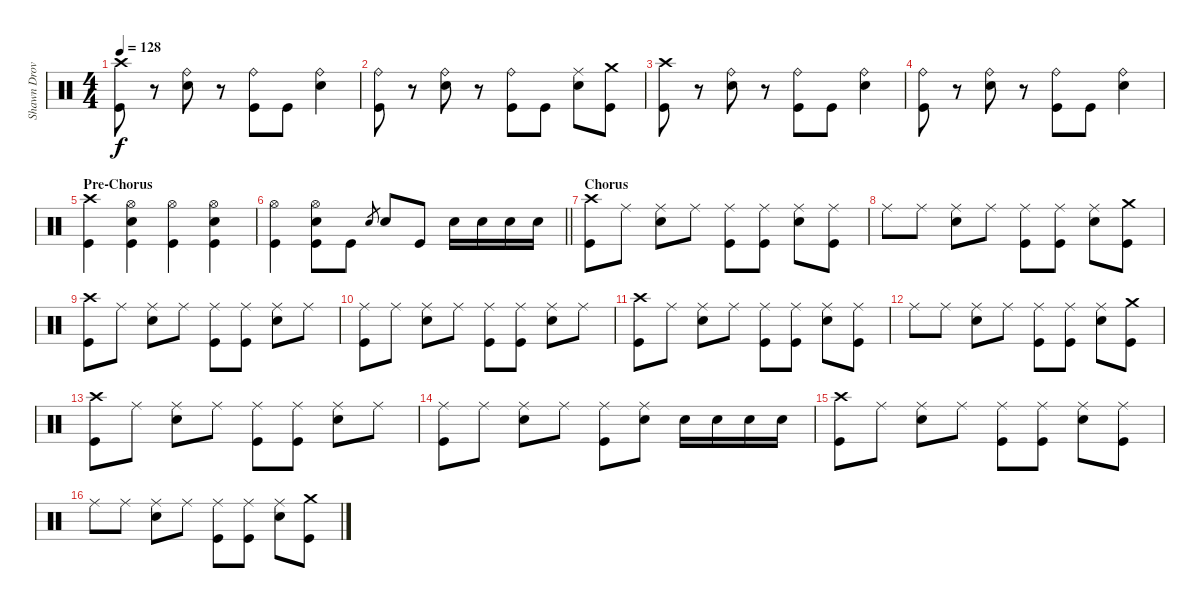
\track ("Shawn Drover" "Shawn Drov") {instrument percussion}
\staff {score}
\articulation defaults
\ts (4 4)
\tempo 128
\clef neutral
\ks c
("Crash high (hit)" "Kick (hit)").8{dy f} r.8 ("Ride (bell)" "Snare (hit) 2").8 r.8 ("Ride (bell)" "Kick (hit)").8 "Kick (hit)".8 ("Ride (bell)" "Snare (hit) 2").4 |
("Ride (bell)" "Kick (hit)").8 r.8 ("Ride (bell)" "Snare (hit) 2").8 r.8 ("Ride (bell)" "Kick (hit)").8 "Kick (hit)".8 ("Ride (middle)" "Snare (hit) 2").8 ("Crash medium (hit)" "Kick (hit)").8 |
("Crash high (hit)" "Kick (hit)").8 r.8 ("Ride (bell)" "Snare (hit) 2").8 r.8 ("Ride (bell)" "Kick (hit)").8 "Kick (hit)".8 ("Ride (bell)" "Snare (hit) 2").4 |
("Ride (bell)" "Kick (hit)").8 r.8 ("Ride (bell)" "Snare (hit) 2").8 r.8 ("Ride (bell)" "Kick (hit)").8 "Kick (hit)".8 ("Ride (bell)" "Snare (hit) 2").4 |
\section ("" "Pre-Chorus")
("Crash high (hit)" "Kick (hit)").4 ("Hi-Hat (open)" "Snare (hit) 2" "Kick (hit)").4 ("Hi-Hat (open)" "Kick (hit)").4 ("Hi-Hat (open)" "Snare (hit) 2" "Kick (hit)").4 |
\barLineRight lightlight
("Hi-Hat (open)" "Kick (hit)").4 ("Hi-Hat (open)" "Snare (hit) 2" "Kick (hit)").8 "Kick (hit)".8 "Snare (hit) 2".8{gr} "Snare (hit) 2".8 "Kick (hit)".8 "Snare (hit) 2".16 "Snare (hit) 2".16 "Snare (hit) 2".16 "Snare (hit) 2".16 |
\section ("" "Chorus")
("Crash high (hit)" "Kick (hit)").8 "Ride (middle)".8 ("Ride (middle)" "Snare (hit) 2").8 "Ride (middle)".8 ("Ride (middle)" "Kick (hit)").8 ("Ride (middle)" "Kick (hit)").8 ("Ride (middle)" "Snare (hit) 2").8 ("Ride (middle)" "Kick (hit)").8 |
"Ride (middle)".8 "Ride (middle)".8 ("Ride (middle)" "Snare (hit) 2").8 "Ride (middle)".8 ("Ride (middle)" "Kick (hit)").8 ("Ride (middle)" "Kick (hit)").8 ("Ride (middle)" "Snare (hit) 2").8 ("Crash medium (hit)" "Kick (hit)").8 |
("Crash high (hit)" "Kick (hit)").8 "Ride (middle)".8 ("Ride (middle)" "Snare (hit) 2").8 "Ride (middle)".8 ("Ride (middle)" "Kick (hit)").8 ("Ride (middle)" "Kick (hit)").8 ("Ride (middle)" "Snare (hit) 2").8 "Ride (middle)".8 |
("Ride (middle)" "Kick (hit)").8 "Ride (middle)".8 ("Ride (middle)" "Snare (hit) 2").8 "Ride (middle)".8 ("Ride (middle)" "Kick (hit)").8 ("Ride (middle)" "Kick (hit)").8 ("Ride (middle)" "Snare (hit) 2").8 "Ride (middle)".8 |
("Crash high (hit)" "Kick (hit)").8 "Ride (middle)".8 ("Ride (middle)" "Snare (hit) 2").8 "Ride (middle)".8 ("Ride (middle)" "Kick (hit)").8 ("Ride (middle)" "Kick (hit)").8 ("Ride (middle)" "Snare (hit) 2").8 ("Ride (middle)" "Kick (hit)").8 |
"Ride (middle)".8 "Ride (middle)".8 ("Ride (middle)" "Snare (hit) 2").8 "Ride (middle)".8 ("Ride (middle)" "Kick (hit)").8 ("Ride (middle)" "Kick (hit)").8 ("Ride (middle)" "Snare (hit) 2").8 ("Crash medium (hit)" "Kick (hit)").8 |
("Crash high (hit)" "Kick (hit)").8 "Ride (middle)".8 ("Ride (middle)" "Snare (hit) 2").8 "Ride (middle)".8 ("Ride (middle)" "Kick (hit)").8 ("Ride (middle)" "Kick (hit)").8 ("Ride (middle)" "Snare (hit) 2").8 "Ride (middle)".8 |
("Ride (middle)" "Kick (hit)").8 "Ride (middle)".8 ("Ride (middle)" "Snare (hit) 2").8 "Ride (middle)".8 ("Ride (middle)" "Kick (hit)").8 ("Ride (middle)" "Snare (hit) 2").8 "Snare (hit) 2".16 "Snare (hit) 2".16 "Snare (hit) 2".16 "Snare (hit) 2".16 |
("Crash high (hit)" "Kick (hit)").8 "Ride (middle)".8 ("Ride (middle)" "Snare (hit) 2").8 "Ride (middle)".8 ("Ride (middle)" "Kick (hit)").8 ("Ride (middle)" "Kick (hit)").8 ("Ride (middle)" "Snare (hit) 2").8 ("Ride (middle)" "Kick (hit)").8 |
"Ride (middle)".8 "Ride (middle)".8 ("Ride (middle)" "Snare (hit) 2").8 "Ride (middle)".8 ("Ride (middle)" "Kick (hit)").8 ("Ride (middle)" "Kick (hit)").8 ("Ride (middle)" "Snare (hit) 2").8 ("Crash medium (hit)" "Kick (hit)").8
